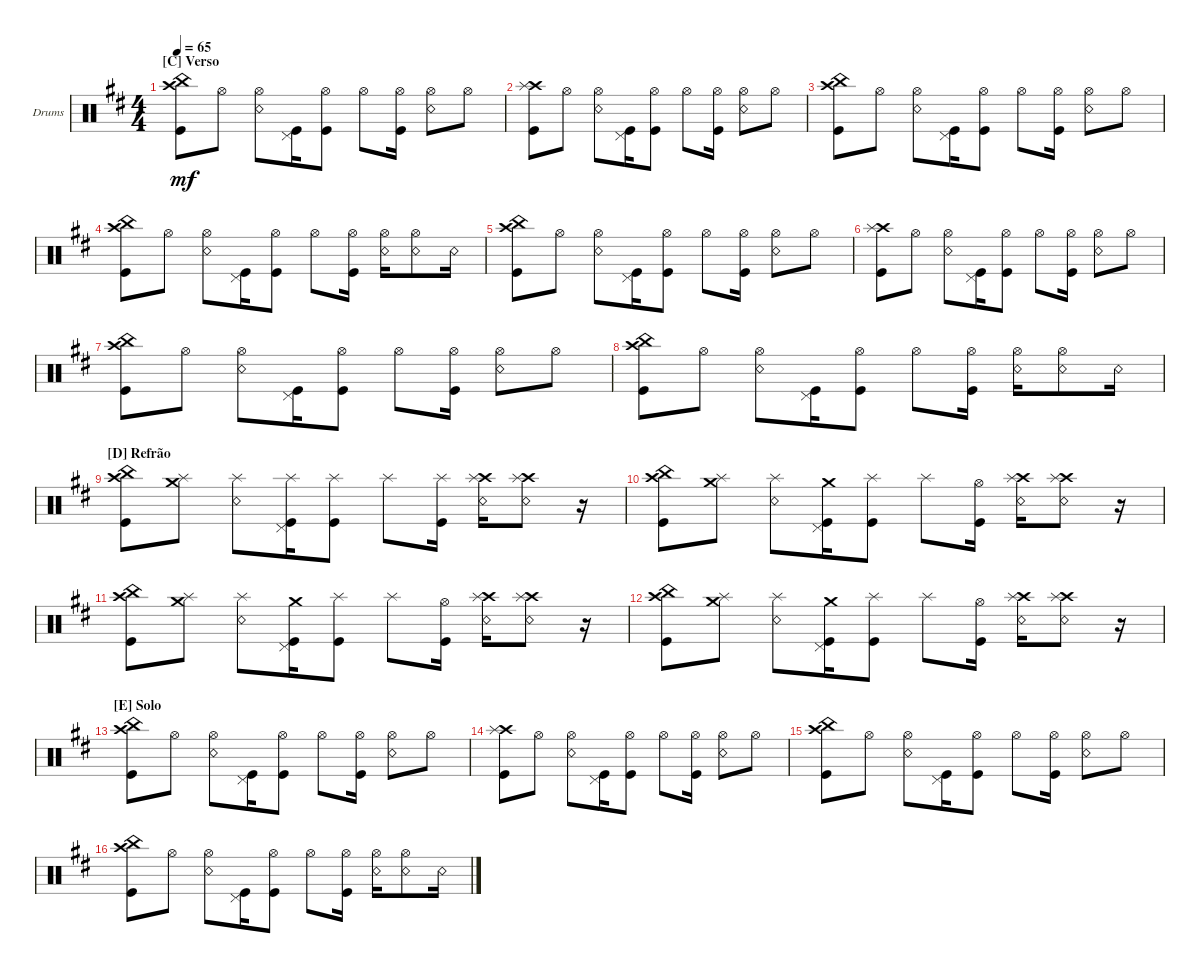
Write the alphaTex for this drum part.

\defaultSystemsLayout 4
\bracketExtendMode groupsimilarinstruments
\firstSystemTrackNameOrientation horizontal
\otherSystemsTrackNameOrientation horizontal
\track ("Bateria" "Drums") {multiBarRest instrument percussion}
\staff {score}
\articulation defaults
\ts (4 4)
\section ("C" "Verso")
\tempo 65
\clef neutral
\ks d
("Kick (hit)" "Crash high (hit)" "China (hit)").8{dy mf} "Hi-Hat (open)".8 ("Hi-Hat (open)" "Snare (rim shot)").8 ("Kick (hit)" "Pedal Hi-Hat (hit)").16 ("Hi-Hat (open)" "Kick (hit)").8 "Hi-Hat (open)".8 ("Hi-Hat (open)" "Kick (hit)").16 ("Hi-Hat (open)" "Snare (rim shot)").8 "Hi-Hat (open)".8 |
("Kick (hit)" "Crash high (hit)" "Splash (hit)").8 "Hi-Hat (open)".8 ("Hi-Hat (open)" "Snare (rim shot)").8 ("Kick (hit)" "Pedal Hi-Hat (hit)").16 ("Hi-Hat (open)" "Kick (hit)").8 "Hi-Hat (open)".8 ("Hi-Hat (open)" "Kick (hit)").16 ("Hi-Hat (open)" "Snare (rim shot)").8 "Hi-Hat (open)".8 |
("Kick (hit)" "Crash high (hit)" "China (hit)").8 "Hi-Hat (open)".8 ("Hi-Hat (open)" "Snare (rim shot)").8 ("Kick (hit)" "Pedal Hi-Hat (hit)").16 ("Hi-Hat (open)" "Kick (hit)").8 "Hi-Hat (open)".8 ("Hi-Hat (open)" "Kick (hit)").16 ("Hi-Hat (open)" "Snare (rim shot)").8 "Hi-Hat (open)".8 |
("Kick (hit)" "Crash high (hit)" "China (hit)").8 "Hi-Hat (open)".8 ("Hi-Hat (open)" "Snare (rim shot)").8 ("Kick (hit)" "Pedal Hi-Hat (hit)").16 ("Hi-Hat (open)" "Kick (hit)").8 "Hi-Hat (open)".8 ("Hi-Hat (open)" "Kick (hit)").16 ("Hi-Hat (open)" "Snare (rim shot)").16 ("Hi-Hat (open)" "Snare (rim shot)").8 "Snare (rim shot)".16 |
("Kick (hit)" "Crash high (hit)" "China (hit)").8 "Hi-Hat (open)".8 ("Hi-Hat (open)" "Snare (rim shot)").8 ("Kick (hit)" "Pedal Hi-Hat (hit)").16 ("Hi-Hat (open)" "Kick (hit)").8 "Hi-Hat (open)".8 ("Hi-Hat (open)" "Kick (hit)").16 ("Hi-Hat (open)" "Snare (rim shot)").8 "Hi-Hat (open)".8 |
("Kick (hit)" "Crash high (hit)" "Splash (hit)").8 "Hi-Hat (open)".8 ("Hi-Hat (open)" "Snare (rim shot)").8 ("Kick (hit)" "Pedal Hi-Hat (hit)").16 ("Hi-Hat (open)" "Kick (hit)").8 "Hi-Hat (open)".8 ("Hi-Hat (open)" "Kick (hit)").16 ("Hi-Hat (open)" "Snare (rim shot)").8 "Hi-Hat (open)".8 |
("Kick (hit)" "Crash high (hit)" "China (hit)").8 "Hi-Hat (open)".8 ("Hi-Hat (open)" "Snare (rim shot)").8 ("Kick (hit)" "Pedal Hi-Hat (hit)").16 ("Hi-Hat (open)" "Kick (hit)").8 "Hi-Hat (open)".8 ("Hi-Hat (open)" "Kick (hit)").16 ("Hi-Hat (open)" "Snare (rim shot)").8 "Hi-Hat (open)".8 |
("Kick (hit)" "Crash high (hit)" "China (hit)").8 "Hi-Hat (open)".8 ("Hi-Hat (open)" "Snare (rim shot)").8 ("Kick (hit)" "Pedal Hi-Hat (hit)").16 ("Hi-Hat (open)" "Kick (hit)").8 "Hi-Hat (open)".8 ("Hi-Hat (open)" "Kick (hit)").16 ("Hi-Hat (open)" "Snare (rim shot)").16 ("Hi-Hat (open)" "Snare (rim shot)").8 "Snare (rim shot)".16 |
\section ("D" "Refrão")
("Kick (hit)" "Crash high (hit)" "China (hit)").8 ("Splash (hit)" "Crash medium (hit)").8 ("Snare (rim shot)" "Splash (hit)").8 ("Kick (hit)" "Pedal Hi-Hat (hit)" "Splash (hit)").16 ("Kick (hit)" "Splash (hit)").8 "Splash (hit)".8 ("Kick (hit)" "Splash (hit)").16 ("Snare (rim shot)" "Crash high (hit)" "Splash (hit)").16 ("Crash high (hit)" "Splash (hit)" "Snare (rim shot)").8 r.16 |
("Kick (hit)" "Crash high (hit)" "China (hit)").8 ("Splash (hit)" "Crash medium (hit)").8 ("Snare (rim shot)" "Splash (hit)").8 ("Kick (hit)" "Pedal Hi-Hat (hit)" "Crash medium (hit)").16 ("Kick (hit)" "Splash (hit)").8 "Splash (hit)".8 ("Hi-Hat (open)" "Kick (hit)").16 ("Snare (rim shot)" "Crash high (hit)" "Splash (hit)").16 ("Crash high (hit)" "Splash (hit)" "Snare (rim shot)").8 r.16 |
("Kick (hit)" "Crash high (hit)" "China (hit)").8 ("Splash (hit)" "Crash medium (hit)").8 ("Snare (rim shot)" "Splash (hit)").8 ("Kick (hit)" "Pedal Hi-Hat (hit)" "Crash medium (hit)").16 ("Kick (hit)" "Splash (hit)").8 "Splash (hit)".8 ("Hi-Hat (open)" "Kick (hit)").16 ("Snare (rim shot)" "Crash high (hit)" "Splash (hit)").16 ("Crash high (hit)" "Splash (hit)" "Snare (rim shot)").8 r.16 |
("Kick (hit)" "Crash high (hit)" "China (hit)").8 ("Splash (hit)" "Crash medium (hit)").8 ("Snare (rim shot)" "Splash (hit)").8 ("Kick (hit)" "Pedal Hi-Hat (hit)" "Crash medium (hit)").16 ("Kick (hit)" "Splash (hit)").8 "Splash (hit)".8 ("Hi-Hat (open)" "Kick (hit)").16 ("Snare (rim shot)" "Crash high (hit)" "Splash (hit)").16 ("Crash high (hit)" "Splash (hit)" "Snare (rim shot)").8 r.16 |
\section ("E" "Solo")
("Kick (hit)" "Crash high (hit)" "China (hit)").8 "Hi-Hat (open)".8 ("Hi-Hat (open)" "Snare (rim shot)").8 ("Kick (hit)" "Pedal Hi-Hat (hit)").16 ("Hi-Hat (open)" "Kick (hit)").8 "Hi-Hat (open)".8 ("Hi-Hat (open)" "Kick (hit)").16 ("Hi-Hat (open)" "Snare (rim shot)").8 "Hi-Hat (open)".8 |
("Kick (hit)" "Crash high (hit)" "Splash (hit)").8 "Hi-Hat (open)".8 ("Hi-Hat (open)" "Snare (rim shot)").8 ("Kick (hit)" "Pedal Hi-Hat (hit)").16 ("Hi-Hat (open)" "Kick (hit)").8 "Hi-Hat (open)".8 ("Hi-Hat (open)" "Kick (hit)").16 ("Hi-Hat (open)" "Snare (rim shot)").8 "Hi-Hat (open)".8 |
("Kick (hit)" "Crash high (hit)" "China (hit)").8 "Hi-Hat (open)".8 ("Hi-Hat (open)" "Snare (rim shot)").8 ("Kick (hit)" "Pedal Hi-Hat (hit)").16 ("Hi-Hat (open)" "Kick (hit)").8 "Hi-Hat (open)".8 ("Hi-Hat (open)" "Kick (hit)").16 ("Hi-Hat (open)" "Snare (rim shot)").8 "Hi-Hat (open)".8 |
("Kick (hit)" "Crash high (hit)" "China (hit)").8 "Hi-Hat (open)".8 ("Hi-Hat (open)" "Snare (rim shot)").8 ("Kick (hit)" "Pedal Hi-Hat (hit)").16 ("Hi-Hat (open)" "Kick (hit)").8 "Hi-Hat (open)".8 ("Hi-Hat (open)" "Kick (hit)").16 ("Hi-Hat (open)" "Snare (rim shot)").16 ("Hi-Hat (open)" "Snare (rim shot)").8 "Snare (rim shot)".16
